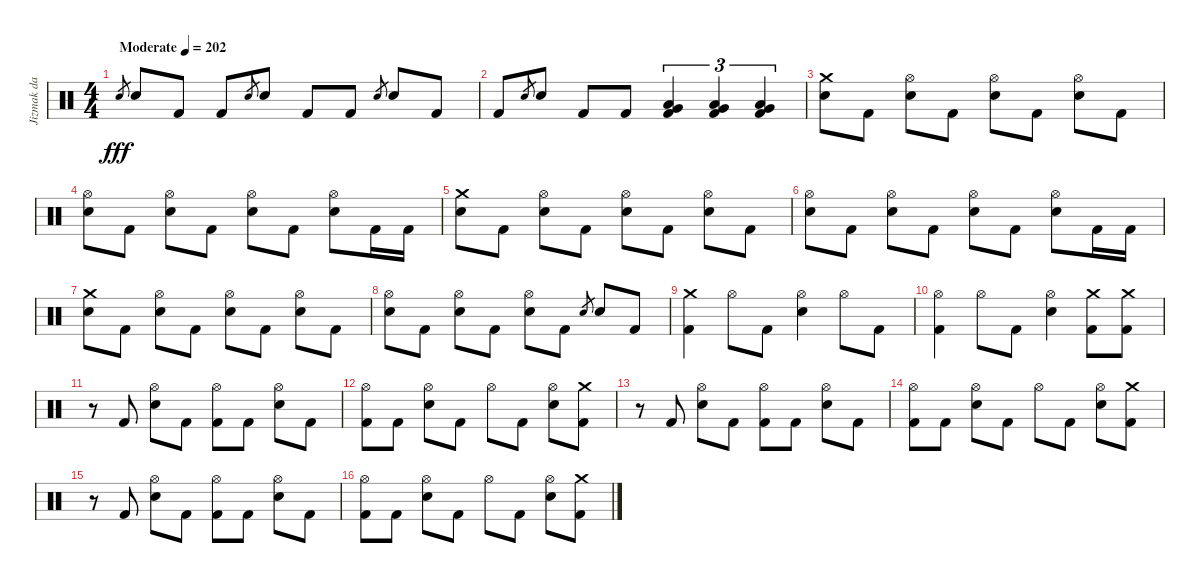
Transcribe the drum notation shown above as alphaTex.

\track ("Jizmak da Gusha" "Jizmak da ") {instrument percussion}
\staff {score}
\articulation defaults
\ts (4 4)
\tempo (202 "Moderate")
\clef neutral
\ks c "Electric Snare (hit)".8{gr dy fff} "Electric Snare (hit)".8 "Kick (hit) 2".8 "Kick (hit) 2".8 "Electric Snare (hit)".8{gr} "Electric Snare (hit)".8 "Kick (hit) 2".8 "Kick (hit) 2".8 "Electric Snare (hit)".8{gr} "Electric Snare (hit)".8 "Kick (hit) 2".8
|
"Kick (hit) 2".8 "Electric Snare (hit)".8{gr} "Electric Snare (hit)".8 "Kick (hit) 2".8 "Kick (hit) 2".8 ("Very Low Tom (hit)" "Low Floor Tom (hit)" "Kick (hit) 2").4{tu (3 2)} ("Very Low Tom (hit)" "Low Floor Tom (hit)" "Kick (hit) 2").4{tu (3 2)} ("Very Low Tom (hit)" "Low Floor Tom (hit)" "Kick (hit) 2").4{tu (3 2)} |
("Crash medium (hit)" "Electric Snare (hit)").8 "Kick (hit) 2".8 ("Hi-Hat (open)" "Electric Snare (hit)").8 "Kick (hit) 2".8 ("Hi-Hat (open)" "Electric Snare (hit)").8 "Kick (hit) 2".8 ("Hi-Hat (open)" "Electric Snare (hit)").8 "Kick (hit) 2".8 |
("Hi-Hat (open)" "Electric Snare (hit)").8 "Kick (hit) 2".8 ("Hi-Hat (open)" "Electric Snare (hit)").8 "Kick (hit) 2".8 ("Hi-Hat (open)" "Electric Snare (hit)").8 "Kick (hit) 2".8 ("Hi-Hat (open)" "Electric Snare (hit)").8 "Kick (hit) 2".16 "Kick (hit) 2".16 |
("Crash medium (hit)" "Electric Snare (hit)").8 "Kick (hit) 2".8 ("Hi-Hat (open)" "Electric Snare (hit)").8 "Kick (hit) 2".8 ("Hi-Hat (open)" "Electric Snare (hit)").8 "Kick (hit) 2".8 ("Hi-Hat (open)" "Electric Snare (hit)").8 "Kick (hit) 2".8 |
("Hi-Hat (open)" "Electric Snare (hit)").8 "Kick (hit) 2".8 ("Hi-Hat (open)" "Electric Snare (hit)").8 "Kick (hit) 2".8 ("Hi-Hat (open)" "Electric Snare (hit)").8 "Kick (hit) 2".8 ("Hi-Hat (open)" "Electric Snare (hit)").8 "Kick (hit) 2".16 "Kick (hit) 2".16 |
("Crash medium (hit)" "Electric Snare (hit)").8 "Kick (hit) 2".8 ("Hi-Hat (open)" "Electric Snare (hit)").8 "Kick (hit) 2".8 ("Hi-Hat (open)" "Electric Snare (hit)").8 "Kick (hit) 2".8 ("Hi-Hat (open)" "Electric Snare (hit)").8 "Kick (hit) 2".8 |
("Hi-Hat (open)" "Electric Snare (hit)").8 "Kick (hit) 2".8 ("Hi-Hat (open)" "Electric Snare (hit)").8 "Kick (hit) 2".8 ("Hi-Hat (open)" "Electric Snare (hit)").8 "Kick (hit) 2".8 "Electric Snare (hit)".8{gr} "Electric Snare (hit)".8 "Kick (hit) 2".8 |
("Crash medium (hit)" "Kick (hit) 2").4 "Hi-Hat (open)".8 "Kick (hit) 2".8 ("Hi-Hat (open)" "Electric Snare (hit)").4 "Hi-Hat (open)".8 "Kick (hit) 2".8 |
("Hi-Hat (open)" "Kick (hit) 2").4 "Hi-Hat (open)".8 "Kick (hit) 2".8 ("Hi-Hat (open)" "Electric Snare (hit)").4 ("Crash medium (hit)" "Kick (hit) 2").8 ("Crash medium (hit)" "Kick (hit) 2").8 |
r.8 "Kick (hit) 2".8 ("Hi-Hat (open)" "Electric Snare (hit)").8 "Kick (hit) 2".8 ("Hi-Hat (open)" "Kick (hit) 2").8 "Kick (hit) 2".8 ("Hi-Hat (open)" "Electric Snare (hit)").8 "Kick (hit) 2".8 |
("Hi-Hat (open)" "Kick (hit) 2").8 "Kick (hit) 2".8 ("Hi-Hat (open)" "Electric Snare (hit)").8 "Kick (hit) 2".8 "Hi-Hat (open)".8 "Kick (hit) 2".8 ("Hi-Hat (open)" "Electric Snare (hit)").8 ("Crash medium (hit)" "Kick (hit) 2").8 |
r.8 "Kick (hit) 2".8 ("Hi-Hat (open)" "Electric Snare (hit)").8 "Kick (hit) 2".8 ("Hi-Hat (open)" "Kick (hit) 2").8 "Kick (hit) 2".8 ("Hi-Hat (open)" "Electric Snare (hit)").8 "Kick (hit) 2".8 |
("Hi-Hat (open)" "Kick (hit) 2").8 "Kick (hit) 2".8 ("Hi-Hat (open)" "Electric Snare (hit)").8 "Kick (hit) 2".8 "Hi-Hat (open)".8 "Kick (hit) 2".8 ("Hi-Hat (open)" "Electric Snare (hit)").8 ("Crash medium (hit)" "Kick (hit) 2").8 |
r.8 "Kick (hit) 2".8 ("Hi-Hat (open)" "Electric Snare (hit)").8 "Kick (hit) 2".8 ("Hi-Hat (open)" "Kick (hit) 2").8 "Kick (hit) 2".8 ("Hi-Hat (open)" "Electric Snare (hit)").8 "Kick (hit) 2".8 |
("Hi-Hat (open)" "Kick (hit) 2").8 "Kick (hit) 2".8 ("Hi-Hat (open)" "Electric Snare (hit)").8 "Kick (hit) 2".8 "Hi-Hat (open)".8 "Kick (hit) 2".8 ("Hi-Hat (open)" "Electric Snare (hit)").8 ("Crash medium (hit)" "Kick (hit) 2").8
